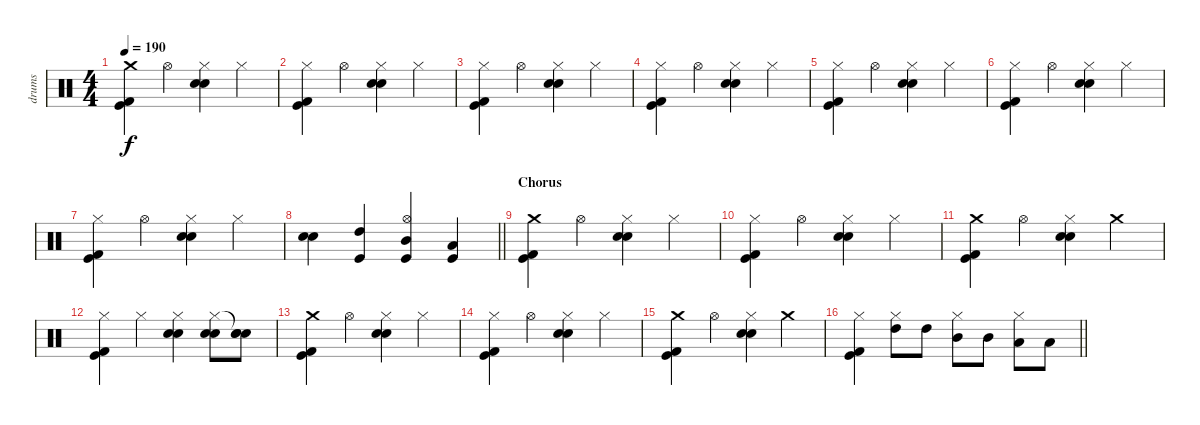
\track ("drums" "drums") {instrument percussion}
\staff {score}
\articulation defaults
\ts (4 4)
\tempo 190
\clef neutral
\ks c
("Crash medium (hit)" "Kick (hit) 2" "Kick (hit)").4{dy f} "Hi-Hat (open)".4 ("Hi-Hat (closed)" "Electric Snare (hit)" "Snare (hit) 2").4 "Hi-Hat (closed)".4 |
("Hi-Hat (closed)" "Kick (hit) 2" "Kick (hit)").4 "Hi-Hat (open)".4 ("Hi-Hat (closed)" "Electric Snare (hit)" "Snare (hit) 2").4 "Hi-Hat (closed)".4 |
("Hi-Hat (closed)" "Kick (hit) 2" "Kick (hit)").4 "Hi-Hat (open)".4 ("Hi-Hat (closed)" "Electric Snare (hit)" "Snare (hit) 2").4 "Hi-Hat (closed)".4 |
("Hi-Hat (closed)" "Kick (hit) 2" "Kick (hit)").4 "Hi-Hat (open)".4 ("Hi-Hat (closed)" "Electric Snare (hit)" "Snare (hit) 2").4 "Hi-Hat (closed)".4 |
("Hi-Hat (closed)" "Kick (hit) 2" "Kick (hit)").4 "Hi-Hat (open)".4 ("Hi-Hat (closed)" "Electric Snare (hit)" "Snare (hit) 2").4 "Hi-Hat (closed)".4 |
("Hi-Hat (closed)" "Kick (hit) 2" "Kick (hit)").4 "Hi-Hat (open)".4 ("Hi-Hat (closed)" "Electric Snare (hit)" "Snare (hit) 2").4 "Hi-Hat (closed)".4 |
("Hi-Hat (closed)" "Kick (hit) 2" "Kick (hit)").4 "Hi-Hat (open)".4 ("Hi-Hat (closed)" "Electric Snare (hit)" "Snare (hit) 2").4 "Hi-Hat (closed)".4 |
\barLineRight lightlight
("Electric Snare (hit)" "Snare (hit) 2").4 ("High Tom (hit)" "Kick (hit)").4 ("Hi-Hat (open)" "Mid Tom (hit)" "Kick (hit)").4 ("Low Tom (hit)" "Kick (hit)").4 |
\section ("" "Chorus")
("Crash medium (hit)" "Kick (hit) 2" "Kick (hit)").4 "Hi-Hat (open)".4 ("Hi-Hat (closed)" "Snare (hit) 2" "Electric Snare (hit)").4 "Hi-Hat (closed)".4 |
("Hi-Hat (closed)" "Kick (hit) 2" "Kick (hit)").4 "Hi-Hat (open)".4 ("Hi-Hat (closed)" "Snare (hit) 2" "Electric Snare (hit)").4 "Hi-Hat (closed)".4 |
("Crash medium (hit)" "Kick (hit) 2" "Kick (hit)").4 "Hi-Hat (open)".4 ("Hi-Hat (closed)" "Snare (hit) 2" "Electric Snare (hit)").4 "Crash medium (hit)".4 |
("Hi-Hat (closed)" "Kick (hit) 2" "Kick (hit)").4 "Hi-Hat (closed)".4 ("Hi-Hat (closed)" "Snare (hit) 2" "Electric Snare (hit)").4 ("Hi-Hat (closed)" "Snare (hit) 2" "Electric Snare (hit)").8 ("Snare (hit)"{t} "Snare (hit) 2" "Electric Snare (hit)").8 |
("Crash medium (hit)" "Kick (hit) 2" "Kick (hit)").4 "Hi-Hat (open)".4 ("Hi-Hat (closed)" "Snare (hit) 2" "Electric Snare (hit)").4 "Hi-Hat (closed)".4 |
("Hi-Hat (closed)" "Kick (hit) 2" "Kick (hit)").4 "Hi-Hat (open)".4 ("Hi-Hat (closed)" "Snare (hit) 2" "Electric Snare (hit)").4 "Hi-Hat (closed)".4 |
("Crash medium (hit)" "Kick (hit) 2" "Kick (hit)").4 "Hi-Hat (open)".4 ("Hi-Hat (closed)" "Snare (hit) 2" "Electric Snare (hit)").4 "Crash medium (hit)".4 |
\barLineRight lightlight
("Hi-Hat (closed)" "Kick (hit) 2" "Kick (hit)").4 ("Hi-Hat (closed)" "High Tom (hit)").8 "High Tom (hit)".8 ("Hi-Hat (closed)" "Mid Tom (hit)").8 "Mid Tom (hit)".8 ("Hi-Hat (closed)" "Low Tom (hit)").8 "Low Tom (hit)".8
